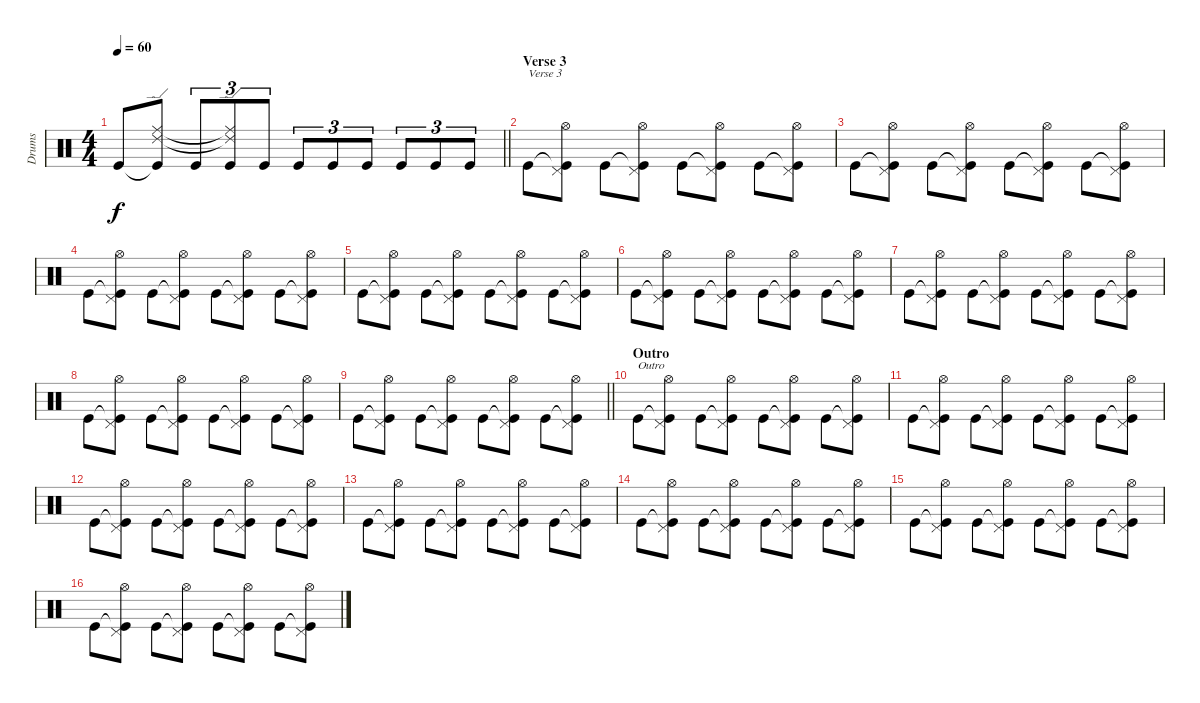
\track ("Drums" "Drums") {instrument percussion}
\staff {score}
\articulation defaults
\ts (4 4)
\tempo 60
\clef neutral
\barLineRight lightlight
\ks c "Kick (hit)".8{dy f}
("Kick (hit)"{t} "Ride (middle)" "Ride (edge) 2").8 "Kick (hit)".8{tu (3 2)} ("Kick (hit)" "Ride (middle)"{t} "Ride (edge) 2"{t}).8{tu (3 2)} "Kick (hit)".8{tu (3 2)} "Kick (hit)".8{tu (3 2)} "Kick (hit)".8{tu (3 2)} "Kick (hit)".8{tu (3 2)} "Kick (hit)".8{tu (3 2)} "Kick (hit)".8{tu (3 2)} "Kick (hit)".8{tu (3 2)} |
\section ("" "Verse 3")
"Kick (hit)".8{txt "Verse 3"} ("Kick (hit)"{t} "Pedal Hi-Hat (hit)" "Hi-Hat (open)").8 "Kick (hit)".8 ("Kick (hit)"{t} "Pedal Hi-Hat (hit)" "Hi-Hat (open)").8 "Kick (hit)".8 ("Kick (hit)"{t} "Pedal Hi-Hat (hit)" "Hi-Hat (open)").8 "Kick (hit)".8 ("Kick (hit)"{t} "Pedal Hi-Hat (hit)" "Hi-Hat (open)").8 |
"Kick (hit)".8 ("Kick (hit)"{t} "Pedal Hi-Hat (hit)" "Hi-Hat (open)").8 "Kick (hit)".8 ("Kick (hit)"{t} "Pedal Hi-Hat (hit)" "Hi-Hat (open)").8 "Kick (hit)".8 ("Kick (hit)"{t} "Pedal Hi-Hat (hit)" "Hi-Hat (open)").8 "Kick (hit)".8 ("Kick (hit)"{t} "Pedal Hi-Hat (hit)" "Hi-Hat (open)").8 |
"Kick (hit)".8 ("Kick (hit)"{t} "Pedal Hi-Hat (hit)" "Hi-Hat (open)").8 "Kick (hit)".8 ("Kick (hit)"{t} "Pedal Hi-Hat (hit)" "Hi-Hat (open)").8 "Kick (hit)".8 ("Kick (hit)"{t} "Pedal Hi-Hat (hit)" "Hi-Hat (open)").8 "Kick (hit)".8 ("Kick (hit)"{t} "Pedal Hi-Hat (hit)" "Hi-Hat (open)").8 |
"Kick (hit)".8 ("Kick (hit)"{t} "Pedal Hi-Hat (hit)" "Hi-Hat (open)").8 "Kick (hit)".8 ("Kick (hit)"{t} "Pedal Hi-Hat (hit)" "Hi-Hat (open)").8 "Kick (hit)".8 ("Kick (hit)"{t} "Pedal Hi-Hat (hit)" "Hi-Hat (open)").8 "Kick (hit)".8 ("Kick (hit)"{t} "Pedal Hi-Hat (hit)" "Hi-Hat (open)").8 |
"Kick (hit)".8 ("Kick (hit)"{t} "Pedal Hi-Hat (hit)" "Hi-Hat (open)").8 "Kick (hit)".8 ("Kick (hit)"{t} "Pedal Hi-Hat (hit)" "Hi-Hat (open)").8 "Kick (hit)".8 ("Kick (hit)"{t} "Pedal Hi-Hat (hit)" "Hi-Hat (open)").8 "Kick (hit)".8 ("Kick (hit)"{t} "Pedal Hi-Hat (hit)" "Hi-Hat (open)").8 |
"Kick (hit)".8 ("Kick (hit)"{t} "Pedal Hi-Hat (hit)" "Hi-Hat (open)").8 "Kick (hit)".8 ("Kick (hit)"{t} "Pedal Hi-Hat (hit)" "Hi-Hat (open)").8 "Kick (hit)".8 ("Kick (hit)"{t} "Pedal Hi-Hat (hit)" "Hi-Hat (open)").8 "Kick (hit)".8 ("Kick (hit)"{t} "Pedal Hi-Hat (hit)" "Hi-Hat (open)").8 |
"Kick (hit)".8 ("Kick (hit)"{t} "Pedal Hi-Hat (hit)" "Hi-Hat (open)").8 "Kick (hit)".8 ("Kick (hit)"{t} "Pedal Hi-Hat (hit)" "Hi-Hat (open)").8 "Kick (hit)".8 ("Kick (hit)"{t} "Pedal Hi-Hat (hit)" "Hi-Hat (open)").8 "Kick (hit)".8 ("Kick (hit)"{t} "Pedal Hi-Hat (hit)" "Hi-Hat (open)").8 |
\barLineRight lightlight "Kick (hit)".8
("Kick (hit)"{t} "Pedal Hi-Hat (hit)" "Hi-Hat (open)").8 "Kick (hit)".8 ("Kick (hit)"{t} "Pedal Hi-Hat (hit)" "Hi-Hat (open)").8 "Kick (hit)".8 ("Kick (hit)"{t} "Pedal Hi-Hat (hit)" "Hi-Hat (open)").8 "Kick (hit)".8 ("Kick (hit)"{t} "Pedal Hi-Hat (hit)" "Hi-Hat (open)").8 |
\section ("" "Outro")
"Kick (hit)".8{txt "Outro"} ("Kick (hit)"{t} "Pedal Hi-Hat (hit)" "Hi-Hat (open)").8 "Kick (hit)".8 ("Kick (hit)"{t} "Pedal Hi-Hat (hit)" "Hi-Hat (open)").8 "Kick (hit)".8 ("Kick (hit)"{t} "Pedal Hi-Hat (hit)" "Hi-Hat (open)").8 "Kick (hit)".8 ("Kick (hit)"{t} "Pedal Hi-Hat (hit)" "Hi-Hat (open)").8 |
"Kick (hit)".8 ("Kick (hit)"{t} "Pedal Hi-Hat (hit)" "Hi-Hat (open)").8 "Kick (hit)".8 ("Kick (hit)"{t} "Pedal Hi-Hat (hit)" "Hi-Hat (open)").8 "Kick (hit)".8 ("Kick (hit)"{t} "Pedal Hi-Hat (hit)" "Hi-Hat (open)").8 "Kick (hit)".8 ("Kick (hit)"{t} "Pedal Hi-Hat (hit)" "Hi-Hat (open)").8 |
"Kick (hit)".8 ("Kick (hit)"{t} "Pedal Hi-Hat (hit)" "Hi-Hat (open)").8 "Kick (hit)".8 ("Kick (hit)"{t} "Pedal Hi-Hat (hit)" "Hi-Hat (open)").8 "Kick (hit)".8 ("Kick (hit)"{t} "Pedal Hi-Hat (hit)" "Hi-Hat (open)").8 "Kick (hit)".8 ("Kick (hit)"{t} "Pedal Hi-Hat (hit)" "Hi-Hat (open)").8 |
"Kick (hit)".8 ("Kick (hit)"{t} "Pedal Hi-Hat (hit)" "Hi-Hat (open)").8 "Kick (hit)".8 ("Kick (hit)"{t} "Pedal Hi-Hat (hit)" "Hi-Hat (open)").8 "Kick (hit)".8 ("Kick (hit)"{t} "Pedal Hi-Hat (hit)" "Hi-Hat (open)").8 "Kick (hit)".8 ("Kick (hit)"{t} "Pedal Hi-Hat (hit)" "Hi-Hat (open)").8 |
"Kick (hit)".8 ("Kick (hit)"{t} "Pedal Hi-Hat (hit)" "Hi-Hat (open)").8 "Kick (hit)".8 ("Kick (hit)"{t} "Pedal Hi-Hat (hit)" "Hi-Hat (open)").8 "Kick (hit)".8 ("Kick (hit)"{t} "Pedal Hi-Hat (hit)" "Hi-Hat (open)").8 "Kick (hit)".8 ("Kick (hit)"{t} "Pedal Hi-Hat (hit)" "Hi-Hat (open)").8 |
"Kick (hit)".8 ("Kick (hit)"{t} "Pedal Hi-Hat (hit)" "Hi-Hat (open)").8 "Kick (hit)".8 ("Kick (hit)"{t} "Pedal Hi-Hat (hit)" "Hi-Hat (open)").8 "Kick (hit)".8 ("Kick (hit)"{t} "Pedal Hi-Hat (hit)" "Hi-Hat (open)").8 "Kick (hit)".8 ("Kick (hit)"{t} "Pedal Hi-Hat (hit)" "Hi-Hat (open)").8 |
"Kick (hit)".8 ("Kick (hit)"{t} "Pedal Hi-Hat (hit)" "Hi-Hat (open)").8 "Kick (hit)".8 ("Kick (hit)"{t} "Pedal Hi-Hat (hit)" "Hi-Hat (open)").8 "Kick (hit)".8 ("Kick (hit)"{t} "Pedal Hi-Hat (hit)" "Hi-Hat (open)").8 "Kick (hit)".8 ("Kick (hit)"{t} "Pedal Hi-Hat (hit)" "Hi-Hat (open)").8
